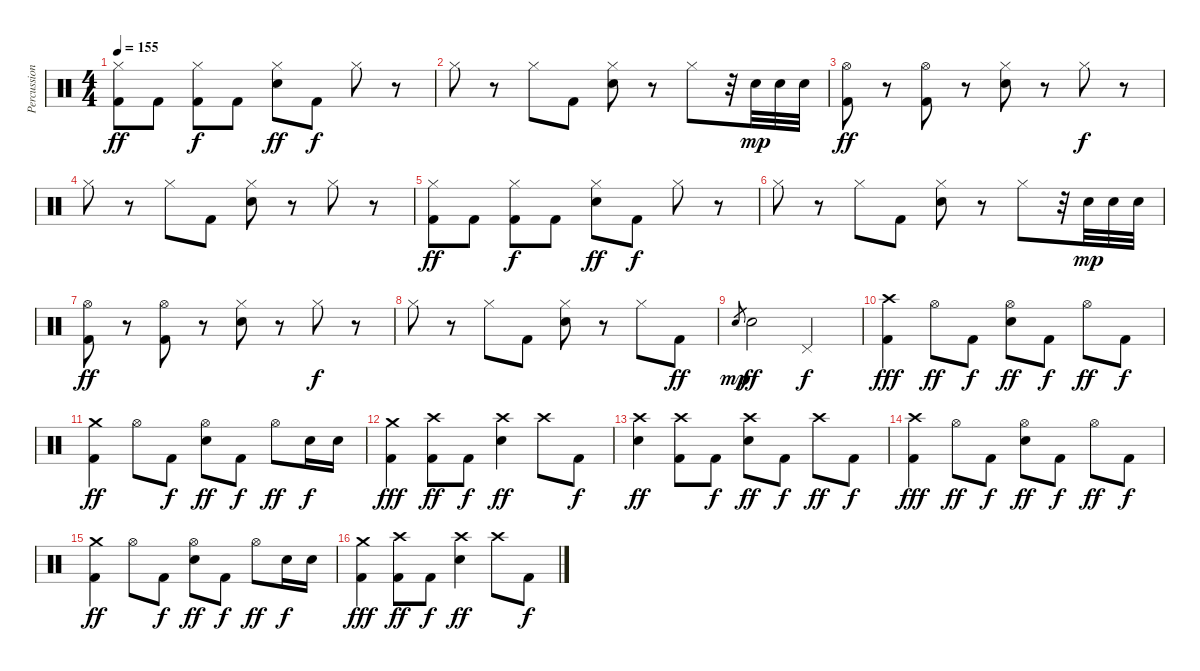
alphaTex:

\track ("Percussions" "Percussion") {instrument percussion}
\staff {score}
\articulation defaults
\ts (4 4)
\tempo 155
\clef neutral
\ks c
("Hi-Hat (closed)" "Kick (hit) 2").8{dy ff} "Kick (hit) 2".8 ("Hi-Hat (closed)" "Kick (hit) 2").8{dy f} "Kick (hit) 2".8 ("Hi-Hat (closed)" "Electric Snare (hit)").8{dy ff} "Kick (hit) 2".8{dy f} "Hi-Hat (closed)".8 r.8 |
"Hi-Hat (closed)".8 r.8 "Hi-Hat (closed)".8 "Kick (hit) 2".8 ("Hi-Hat (closed)" "Electric Snare (hit)").8 r.8 "Hi-Hat (closed)".8 r.32 "Electric Snare (hit)".32{dy mp} "Electric Snare (hit)".32 "Electric Snare (hit)".32 |
("Hi-Hat (open)" "Kick (hit) 2").8{dy ff} r.8 ("Hi-Hat (open)" "Kick (hit) 2").8 r.8 ("Hi-Hat (closed)" "Electric Snare (hit)").8 r.8 "Hi-Hat (closed)".8{dy f} r.8 |
"Hi-Hat (closed)".8 r.8 "Hi-Hat (closed)".8 "Kick (hit) 2".8 ("Hi-Hat (closed)" "Electric Snare (hit)").8 r.8 "Hi-Hat (closed)".8 r.8 |
("Hi-Hat (closed)" "Kick (hit) 2").8{dy ff} "Kick (hit) 2".8 ("Hi-Hat (closed)" "Kick (hit) 2").8{dy f} "Kick (hit) 2".8 ("Hi-Hat (closed)" "Electric Snare (hit)").8{dy ff} "Kick (hit) 2".8{dy f} "Hi-Hat (closed)".8 r.8 |
"Hi-Hat (closed)".8 r.8 "Hi-Hat (closed)".8 "Kick (hit) 2".8 ("Hi-Hat (closed)" "Electric Snare (hit)").8 r.8 "Hi-Hat (closed)".8 r.32 "Electric Snare (hit)".32{dy mp} "Electric Snare (hit)".32 "Electric Snare (hit)".32 |
("Hi-Hat (open)" "Kick (hit) 2").8{dy ff} r.8 ("Hi-Hat (open)" "Kick (hit) 2").8 r.8 ("Hi-Hat (closed)" "Electric Snare (hit)").8 r.8 "Hi-Hat (closed)".8{dy f} r.8 |
"Hi-Hat (closed)".8 r.8 "Hi-Hat (closed)".8 "Kick (hit) 2".8 ("Hi-Hat (closed)" "Electric Snare (hit)").8 r.8 "Hi-Hat (closed)".8 "Kick (hit) 2".8{dy ff} |
"Electric Snare (hit)".8{gr dy mp} "Electric Snare (hit)".2{dy ff} "Pedal Hi-Hat (hit)".2{dy f} |
("Crash high (hit)" "Kick (hit) 2").4{dy fff} "Hi-Hat (open)".8{dy ff} "Kick (hit) 2".8{dy f} ("Hi-Hat (open)" "Electric Snare (hit)").8{dy ff} "Kick (hit) 2".8{dy f} "Hi-Hat (open)".8{dy ff} "Kick (hit) 2".8{dy f} |
("Crash medium (hit)" "Kick (hit) 2").4{dy ff} "Hi-Hat (open)".8 "Kick (hit) 2".8{dy f} ("Hi-Hat (open)" "Electric Snare (hit)").8{dy ff} "Kick (hit) 2".8{dy f} "Hi-Hat (open)".8{dy ff} "Electric Snare (hit)".16{dy f} "Electric Snare (hit)".16 |
("Crash medium (hit)" "Kick (hit) 2").4{dy fff} ("Crash high (hit)" "Kick (hit) 2").8{dy ff} "Kick (hit) 2".8{dy f} ("Crash high (hit)" "Electric Snare (hit)").4{dy ff} "Crash high (hit)".8 "Kick (hit) 2".8{dy f} |
("Crash high (hit)" "Electric Snare (hit)").4{dy ff} ("Crash high (hit)" "Kick (hit) 2").8 "Kick (hit) 2".8{dy f} ("Crash high (hit)" "Electric Snare (hit)").8{dy ff} "Kick (hit) 2".8{dy f} "Crash high (hit)".8{dy ff} "Kick (hit) 2".8{dy f} |
("Crash high (hit)" "Kick (hit) 2").4{dy fff} "Hi-Hat (open)".8{dy ff} "Kick (hit) 2".8{dy f} ("Hi-Hat (open)" "Electric Snare (hit)").8{dy ff} "Kick (hit) 2".8{dy f} "Hi-Hat (open)".8{dy ff} "Kick (hit) 2".8{dy f} |
("Crash medium (hit)" "Kick (hit) 2").4{dy ff} "Hi-Hat (open)".8 "Kick (hit) 2".8{dy f} ("Hi-Hat (open)" "Electric Snare (hit)").8{dy ff} "Kick (hit) 2".8{dy f} "Hi-Hat (open)".8{dy ff} "Electric Snare (hit)".16{dy f} "Electric Snare (hit)".16 |
("Crash medium (hit)" "Kick (hit) 2").4{dy fff} ("Crash high (hit)" "Kick (hit) 2").8{dy ff} "Kick (hit) 2".8{dy f} ("Crash high (hit)" "Electric Snare (hit)").4{dy ff} "Crash high (hit)".8 "Kick (hit) 2".8{dy f}
